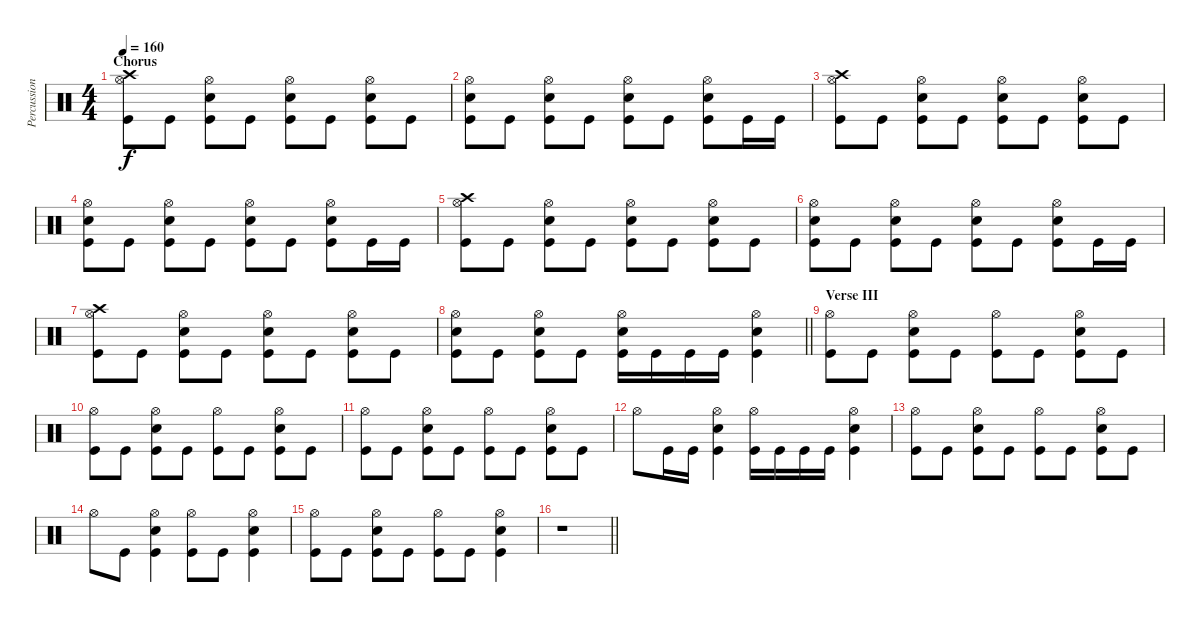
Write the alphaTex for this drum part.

\track ("Percussion" "Percussion") {instrument percussion}
\staff {score}
\articulation defaults
\ts (4 4)
\section ("" "Chorus")
\tempo 160
\clef neutral
\ks c
("Crash high (hit)" "Hi-Hat (open)" "Kick (hit)").8{dy f} "Kick (hit)".8 ("Hi-Hat (open)" "Electric Snare (hit)" "Kick (hit)").8 "Kick (hit)".8 ("Hi-Hat (open)" "Electric Snare (hit)" "Kick (hit)").8 "Kick (hit)".8 ("Hi-Hat (open)" "Electric Snare (hit)" "Kick (hit)").8 "Kick (hit)".8 |
("Hi-Hat (open)" "Electric Snare (hit)" "Kick (hit)").8 "Kick (hit)".8 ("Hi-Hat (open)" "Electric Snare (hit)" "Kick (hit)").8 "Kick (hit)".8 ("Hi-Hat (open)" "Electric Snare (hit)" "Kick (hit)").8 "Kick (hit)".8 ("Hi-Hat (open)" "Electric Snare (hit)" "Kick (hit)").8 "Kick (hit)".16 "Kick (hit)".16 |
("Crash high (hit)" "Hi-Hat (open)" "Kick (hit)").8 "Kick (hit)".8 ("Hi-Hat (open)" "Electric Snare (hit)" "Kick (hit)").8 "Kick (hit)".8 ("Hi-Hat (open)" "Electric Snare (hit)" "Kick (hit)").8 "Kick (hit)".8 ("Hi-Hat (open)" "Electric Snare (hit)" "Kick (hit)").8 "Kick (hit)".8 |
("Hi-Hat (open)" "Electric Snare (hit)" "Kick (hit)").8 "Kick (hit)".8 ("Hi-Hat (open)" "Electric Snare (hit)" "Kick (hit)").8 "Kick (hit)".8 ("Hi-Hat (open)" "Electric Snare (hit)" "Kick (hit)").8 "Kick (hit)".8 ("Hi-Hat (open)" "Electric Snare (hit)" "Kick (hit)").8 "Kick (hit)".16 "Kick (hit)".16 |
("Crash high (hit)" "Hi-Hat (open)" "Kick (hit)").8 "Kick (hit)".8 ("Hi-Hat (open)" "Electric Snare (hit)" "Kick (hit)").8 "Kick (hit)".8 ("Hi-Hat (open)" "Electric Snare (hit)" "Kick (hit)").8 "Kick (hit)".8 ("Hi-Hat (open)" "Electric Snare (hit)" "Kick (hit)").8 "Kick (hit)".8 |
("Hi-Hat (open)" "Electric Snare (hit)" "Kick (hit)").8 "Kick (hit)".8 ("Hi-Hat (open)" "Electric Snare (hit)" "Kick (hit)").8 "Kick (hit)".8 ("Hi-Hat (open)" "Electric Snare (hit)" "Kick (hit)").8 "Kick (hit)".8 ("Hi-Hat (open)" "Electric Snare (hit)" "Kick (hit)").8 "Kick (hit)".16 "Kick (hit)".16 |
("Crash high (hit)" "Hi-Hat (open)" "Kick (hit)").8 "Kick (hit)".8 ("Hi-Hat (open)" "Electric Snare (hit)" "Kick (hit)").8 "Kick (hit)".8 ("Hi-Hat (open)" "Electric Snare (hit)" "Kick (hit)").8 "Kick (hit)".8 ("Hi-Hat (open)" "Electric Snare (hit)" "Kick (hit)").8 "Kick (hit)".8 |
\barLineRight lightlight
("Hi-Hat (open)" "Electric Snare (hit)" "Kick (hit)").8 "Kick (hit)".8 ("Hi-Hat (open)" "Electric Snare (hit)" "Kick (hit)").8 "Kick (hit)".8 ("Hi-Hat (open)" "Electric Snare (hit)" "Kick (hit)").16 "Kick (hit)".16 "Kick (hit)".16 "Kick (hit)".16 ("Hi-Hat (open)" "Electric Snare (hit)" "Kick (hit)").4 |
\section ("" "Verse III")
("Hi-Hat (open)" "Kick (hit)").8 "Kick (hit)".8 ("Hi-Hat (open)" "Electric Snare (hit)" "Kick (hit)").8 "Kick (hit)".8 ("Hi-Hat (open)" "Kick (hit)").8 "Kick (hit)".8 ("Hi-Hat (open)" "Electric Snare (hit)" "Kick (hit)").8 "Kick (hit)".8 |
("Hi-Hat (open)" "Kick (hit)").8 "Kick (hit)".8 ("Hi-Hat (open)" "Electric Snare (hit)" "Kick (hit)").8 "Kick (hit)".8 ("Hi-Hat (open)" "Kick (hit)").8 "Kick (hit)".8 ("Hi-Hat (open)" "Electric Snare (hit)" "Kick (hit)").8 "Kick (hit)".8 |
("Hi-Hat (open)" "Kick (hit)").8 "Kick (hit)".8 ("Hi-Hat (open)" "Electric Snare (hit)" "Kick (hit)").8 "Kick (hit)".8 ("Hi-Hat (open)" "Kick (hit)").8 "Kick (hit)".8 ("Hi-Hat (open)" "Electric Snare (hit)" "Kick (hit)").8 "Kick (hit)".8 |
"Hi-Hat (open)".8 "Kick (hit)".16 "Kick (hit)".16 ("Hi-Hat (open)" "Electric Snare (hit)" "Kick (hit)").4 ("Hi-Hat (open)" "Kick (hit)").16 "Kick (hit)".16 "Kick (hit)".16 "Kick (hit)".16 ("Hi-Hat (open)" "Electric Snare (hit)" "Kick (hit)").4 |
("Hi-Hat (open)" "Kick (hit)").8 "Kick (hit)".8 ("Hi-Hat (open)" "Electric Snare (hit)" "Kick (hit)").8 "Kick (hit)".8 ("Hi-Hat (open)" "Kick (hit)").8 "Kick (hit)".8 ("Hi-Hat (open)" "Electric Snare (hit)" "Kick (hit)").8 "Kick (hit)".8 |
"Hi-Hat (open)".8 "Kick (hit)".8 ("Hi-Hat (open)" "Electric Snare (hit)" "Kick (hit)").4 ("Hi-Hat (open)" "Kick (hit)").8 "Kick (hit)".8 ("Hi-Hat (open)" "Electric Snare (hit)" "Kick (hit)").4 |
("Hi-Hat (open)" "Kick (hit)").8 "Kick (hit)".8 ("Hi-Hat (open)" "Electric Snare (hit)" "Kick (hit)").8 "Kick (hit)".8 ("Hi-Hat (open)" "Kick (hit)").8 "Kick (hit)".8 ("Hi-Hat (open)" "Electric Snare (hit)" "Kick (hit)").4 |
\barLineRight lightlight
r.1
